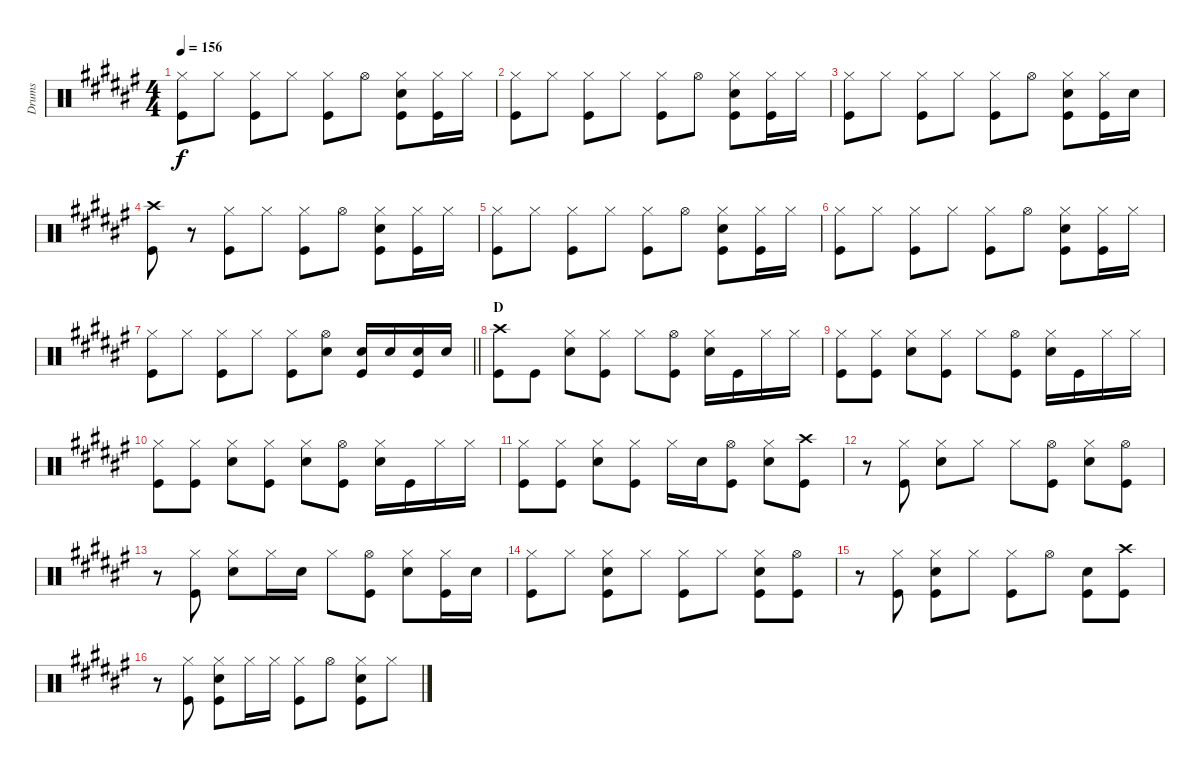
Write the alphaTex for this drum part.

\track ("Drums" "Drums") {instrument percussion}
\staff {score}
\articulation defaults
\ts (4 4)
\tempo 156
\clef neutral
\ks f#
("Hi-Hat (closed)" "Kick (hit)").8{dy f} "Hi-Hat (closed)".8 ("Hi-Hat (closed)" "Kick (hit)").8 "Hi-Hat (closed)".8 ("Hi-Hat (closed)" "Kick (hit)").8 "Hi-Hat (open)".8 ("Hi-Hat (closed)" "Snare (hit) 2" "Kick (hit)").8 ("Hi-Hat (closed)" "Kick (hit)").16 "Hi-Hat (closed)".16 |
("Hi-Hat (closed)" "Kick (hit)").8 "Hi-Hat (closed)".8 ("Hi-Hat (closed)" "Kick (hit)").8 "Hi-Hat (closed)".8 ("Hi-Hat (closed)" "Kick (hit)").8 "Hi-Hat (open)".8 ("Hi-Hat (closed)" "Snare (hit) 2" "Kick (hit)").8 ("Hi-Hat (closed)" "Kick (hit)").16 "Hi-Hat (closed)".16 |
("Hi-Hat (closed)" "Kick (hit)").8 "Hi-Hat (closed)".8 ("Hi-Hat (closed)" "Kick (hit)").8 "Hi-Hat (closed)".8 ("Hi-Hat (closed)" "Kick (hit)").8 "Hi-Hat (open)".8 ("Hi-Hat (closed)" "Snare (hit) 2" "Kick (hit)").8 ("Hi-Hat (closed)" "Kick (hit)").16 "Snare (hit) 2".16 |
("Crash high (hit)" "Kick (hit)").8 r.8 ("Hi-Hat (closed)" "Kick (hit)").8 "Hi-Hat (closed)".8 ("Hi-Hat (closed)" "Kick (hit)").8 "Hi-Hat (open)".8 ("Hi-Hat (closed)" "Snare (hit) 2" "Kick (hit)").8 ("Hi-Hat (closed)" "Kick (hit)").16 "Hi-Hat (closed)".16 |
("Hi-Hat (closed)" "Kick (hit)").8 "Hi-Hat (closed)".8 ("Hi-Hat (closed)" "Kick (hit)").8 "Hi-Hat (closed)".8 ("Hi-Hat (closed)" "Kick (hit)").8 "Hi-Hat (open)".8 ("Hi-Hat (closed)" "Snare (hit) 2" "Kick (hit)").8 ("Hi-Hat (closed)" "Kick (hit)").16 "Hi-Hat (closed)".16 |
("Hi-Hat (closed)" "Kick (hit)").8 "Hi-Hat (closed)".8 ("Hi-Hat (closed)" "Kick (hit)").8 "Hi-Hat (closed)".8 ("Hi-Hat (closed)" "Kick (hit)").8 "Hi-Hat (open)".8 ("Hi-Hat (closed)" "Snare (hit) 2" "Kick (hit)").8 ("Hi-Hat (closed)" "Kick (hit)").16 "Hi-Hat (closed)".16 |
\barLineRight lightlight
("Hi-Hat (closed)" "Kick (hit)").8 "Hi-Hat (closed)".8 ("Hi-Hat (closed)" "Kick (hit)").8 "Hi-Hat (closed)".8 ("Hi-Hat (closed)" "Kick (hit)").8 ("Hi-Hat (open)" "Snare (hit) 2").8 ("Snare (hit) 2" "Kick (hit)").16 "Snare (hit) 2".16 ("Snare (hit) 2" "Kick (hit)").16 "Snare (hit) 2".16 |
\section ("" "D")
("Crash high (hit)" "Kick (hit)").8 "Kick (hit)".8 ("Hi-Hat (closed)" "Snare (hit) 2").8 ("Hi-Hat (closed)" "Kick (hit)").8 "Hi-Hat (closed)".8 ("Hi-Hat (open)" "Kick (hit)").8 ("Hi-Hat (closed)" "Snare (hit) 2").16 "Kick (hit)".16 "Hi-Hat (closed)".16 "Hi-Hat (closed)".16 |
("Hi-Hat (closed)" "Kick (hit)").8 ("Hi-Hat (closed)" "Kick (hit)").8 ("Hi-Hat (closed)" "Snare (hit) 2").8 ("Hi-Hat (closed)" "Kick (hit)").8 "Hi-Hat (closed)".8 ("Hi-Hat (open)" "Kick (hit)").8 ("Hi-Hat (closed)" "Snare (hit) 2").16 "Kick (hit)".16 "Hi-Hat (closed)".16 "Hi-Hat (closed)".16 |
("Hi-Hat (closed)" "Kick (hit)").8 ("Hi-Hat (closed)" "Kick (hit)").8 ("Hi-Hat (closed)" "Snare (hit) 2").8 ("Hi-Hat (closed)" "Kick (hit)").8 ("Hi-Hat (closed)" "Snare (hit) 2").8 ("Hi-Hat (open)" "Kick (hit)").8 ("Hi-Hat (closed)" "Snare (hit) 2").16 "Kick (hit)".16 "Hi-Hat (closed)".16 "Hi-Hat (closed)".16 |
("Hi-Hat (closed)" "Kick (hit)").8 ("Hi-Hat (closed)" "Kick (hit)").8 ("Hi-Hat (closed)" "Snare (hit) 2").8 ("Hi-Hat (closed)" "Kick (hit)").8 "Hi-Hat (closed)".16 "Snare (hit) 2".16 ("Hi-Hat (open)" "Kick (hit)").8 ("Hi-Hat (closed)" "Snare (hit) 2").8 ("Crash high (hit)" "Kick (hit)").8 |
r.8 ("Hi-Hat (closed)" "Kick (hit)").8 ("Hi-Hat (closed)" "Snare (hit) 2").8 "Hi-Hat (closed)".8 "Hi-Hat (closed)".8 ("Hi-Hat (open)" "Kick (hit)").8 ("Hi-Hat (closed)" "Snare (hit) 2").8 ("Hi-Hat (open)" "Kick (hit)").8 |
r.8 ("Hi-Hat (closed)" "Kick (hit)").8 ("Hi-Hat (closed)" "Snare (hit) 2").8 "Hi-Hat (closed)".16 "Snare (hit) 2".16 "Hi-Hat (closed)".8 ("Hi-Hat (open)" "Kick (hit)").8 ("Hi-Hat (closed)" "Snare (hit) 2").8 ("Hi-Hat (closed)" "Kick (hit)").16 "Snare (hit) 2".16 |
("Hi-Hat (closed)" "Kick (hit)").8 "Hi-Hat (closed)".8 ("Hi-Hat (closed)" "Snare (hit) 2" "Kick (hit)").8 "Hi-Hat (closed)".8 ("Hi-Hat (closed)" "Kick (hit)").8 "Hi-Hat (closed)".8 ("Hi-Hat (closed)" "Snare (hit) 2" "Kick (hit)").8 ("Hi-Hat (open)" "Kick (hit)").8 |
r.8 ("Hi-Hat (closed)" "Kick (hit)").8 ("Hi-Hat (closed)" "Snare (hit) 2" "Kick (hit)").8 "Hi-Hat (closed)".8 ("Hi-Hat (closed)" "Kick (hit)").8 "Hi-Hat (open)".8 ("Snare (hit) 2" "Kick (hit)").8 ("Crash high (hit)" "Kick (hit)").8 |
r.8 ("Hi-Hat (closed)" "Kick (hit)").8 ("Hi-Hat (closed)" "Snare (hit) 2" "Kick (hit)").8 "Hi-Hat (closed)".16 "Hi-Hat (closed)".16 ("Hi-Hat (closed)" "Kick (hit)").8 "Hi-Hat (open)".8 ("Hi-Hat (closed)" "Snare (hit) 2" "Kick (hit)").8 "Hi-Hat (closed)".8
